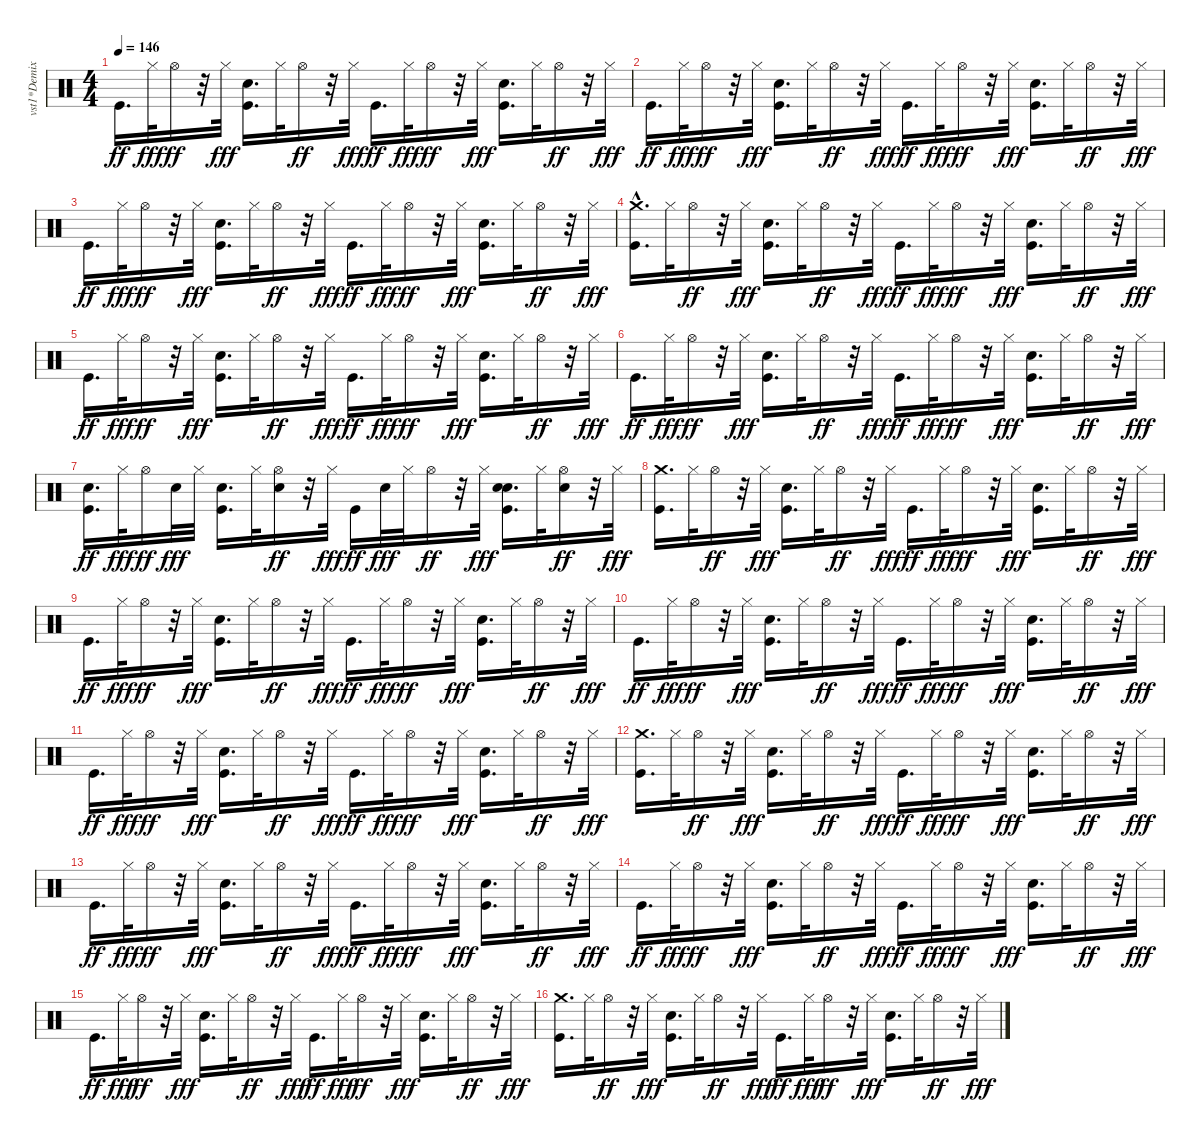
\track ("vst1*Demixed 10" "vst1*Demix") {instrument percussion}
\staff {score}
\articulation defaults
\ts (4 4)
\tempo 146
\clef neutral
\ks c "Kick (hit)".16{d dy ff} "Hi-Hat (closed)".32{dy fff} "Hi-Hat (open)".16{dy ff}
r.32 "Hi-Hat (closed)".32{dy fff} ("Kick (hit)" "Hand Clap (hit)").16{d} "Hi-Hat (closed)".32 "Hi-Hat (open)".16{dy ff} r.32 "Hi-Hat (closed)".32{dy fff} "Kick (hit)".16{d dy ff} "Hi-Hat (closed)".32{dy fff} "Hi-Hat (open)".16{dy ff} r.32 "Hi-Hat (closed)".32{dy fff} ("Kick (hit)" "Hand Clap (hit)").16{d} "Hi-Hat (closed)".32 "Hi-Hat (open)".16{dy ff} r.32 "Hi-Hat (closed)".32{dy fff} |
"Kick (hit)".16{d dy ff} "Hi-Hat (closed)".32{dy fff} "Hi-Hat (open)".16{dy ff} r.32 "Hi-Hat (closed)".32{dy fff} ("Kick (hit)" "Hand Clap (hit)").16{d} "Hi-Hat (closed)".32 "Hi-Hat (open)".16{dy ff} r.32 "Hi-Hat (closed)".32{dy fff} "Kick (hit)".16{d dy ff} "Hi-Hat (closed)".32{dy fff} "Hi-Hat (open)".16{dy ff} r.32 "Hi-Hat (closed)".32{dy fff} ("Kick (hit)" "Hand Clap (hit)").16{d} "Hi-Hat (closed)".32 "Hi-Hat (open)".16{dy ff} r.32 "Hi-Hat (closed)".32{dy fff} |
"Kick (hit)".16{d dy ff} "Hi-Hat (closed)".32{dy fff} "Hi-Hat (open)".16{dy ff} r.32 "Hi-Hat (closed)".32{dy fff} ("Kick (hit)" "Hand Clap (hit)").16{d} "Hi-Hat (closed)".32 "Hi-Hat (open)".16{dy ff} r.32 "Hi-Hat (closed)".32{dy fff} "Kick (hit)".16{d dy ff} "Hi-Hat (closed)".32{dy fff} "Hi-Hat (open)".16{dy ff} r.32 "Hi-Hat (closed)".32{dy fff} ("Kick (hit)" "Hand Clap (hit)").16{d} "Hi-Hat (closed)".32 "Hi-Hat (open)".16{dy ff} r.32 "Hi-Hat (closed)".32{dy fff} |
("Kick (hit)" "Crash medium (hit)"{hac}).16{d} "Hi-Hat (closed)".32 "Hi-Hat (open)".16{dy ff} r.32 "Hi-Hat (closed)".32{dy fff} ("Kick (hit)" "Hand Clap (hit)").16{d} "Hi-Hat (closed)".32 "Hi-Hat (open)".16{dy ff} r.32 "Hi-Hat (closed)".32{dy fff} "Kick (hit)".16{d dy ff} "Hi-Hat (closed)".32{dy fff} "Hi-Hat (open)".16{dy ff} r.32 "Hi-Hat (closed)".32{dy fff} ("Kick (hit)" "Hand Clap (hit)").16{d} "Hi-Hat (closed)".32 "Hi-Hat (open)".16{dy ff} r.32 "Hi-Hat (closed)".32{dy fff} |
"Kick (hit)".16{d dy ff} "Hi-Hat (closed)".32{dy fff} "Hi-Hat (open)".16{dy ff} r.32 "Hi-Hat (closed)".32{dy fff} ("Kick (hit)" "Hand Clap (hit)").16{d} "Hi-Hat (closed)".32 "Hi-Hat (open)".16{dy ff} r.32 "Hi-Hat (closed)".32{dy fff} "Kick (hit)".16{d dy ff} "Hi-Hat (closed)".32{dy fff} "Hi-Hat (open)".16{dy ff} r.32 "Hi-Hat (closed)".32{dy fff} ("Kick (hit)" "Hand Clap (hit)").16{d} "Hi-Hat (closed)".32 "Hi-Hat (open)".16{dy ff} r.32 "Hi-Hat (closed)".32{dy fff} |
"Kick (hit)".16{d dy ff} "Hi-Hat (closed)".32{dy fff} "Hi-Hat (open)".16{dy ff} r.32 "Hi-Hat (closed)".32{dy fff} ("Kick (hit)" "Hand Clap (hit)").16{d} "Hi-Hat (closed)".32 "Hi-Hat (open)".16{dy ff} r.32 "Hi-Hat (closed)".32{dy fff} "Kick (hit)".16{d dy ff} "Hi-Hat (closed)".32{dy fff} "Hi-Hat (open)".16{dy ff} r.32 "Hi-Hat (closed)".32{dy fff} ("Kick (hit)" "Hand Clap (hit)").16{d} "Hi-Hat (closed)".32 "Hi-Hat (open)".16{dy ff} r.32 "Hi-Hat (closed)".32{dy fff} |
("Snare (hit)" "Kick (hit)").16{d dy ff} "Hi-Hat (closed)".32{dy fff} "Hi-Hat (open)".16{dy ff} "Snare (hit)".32{dy fff} "Hi-Hat (closed)".32 ("Kick (hit)" "Hand Clap (hit)").16{d} "Hi-Hat (closed)".32 ("Snare (hit)" "Hi-Hat (open)").16{dy ff} r.32 "Hi-Hat (closed)".32{dy fff} "Kick (hit)".16{dy ff} "Snare (hit)".32{dy fff} "Hi-Hat (closed)".32 "Hi-Hat (open)".16{dy ff} r.32 "Hi-Hat (closed)".32{dy fff} ("Snare (hit)" "Kick (hit)" "Hand Clap (hit)").16{d} "Hi-Hat (closed)".32 ("Snare (hit)" "Hi-Hat (open)").16{dy ff} r.32 "Hi-Hat (closed)".32{dy fff} |
("Kick (hit)" "Crash medium (hit)").16{d} "Hi-Hat (closed)".32 "Hi-Hat (open)".16{dy ff} r.32 "Hi-Hat (closed)".32{dy fff} ("Kick (hit)" "Hand Clap (hit)").16{d} "Hi-Hat (closed)".32 "Hi-Hat (open)".16{dy ff} r.32 "Hi-Hat (closed)".32{dy fff} "Kick (hit)".16{d dy ff} "Hi-Hat (closed)".32{dy fff} "Hi-Hat (open)".16{dy ff} r.32 "Hi-Hat (closed)".32{dy fff} ("Kick (hit)" "Hand Clap (hit)").16{d} "Hi-Hat (closed)".32 "Hi-Hat (open)".16{dy ff} r.32 "Hi-Hat (closed)".32{dy fff} |
"Kick (hit)".16{d dy ff} "Hi-Hat (closed)".32{dy fff} "Hi-Hat (open)".16{dy ff} r.32 "Hi-Hat (closed)".32{dy fff} ("Kick (hit)" "Hand Clap (hit)").16{d} "Hi-Hat (closed)".32 "Hi-Hat (open)".16{dy ff} r.32 "Hi-Hat (closed)".32{dy fff} "Kick (hit)".16{d dy ff} "Hi-Hat (closed)".32{dy fff} "Hi-Hat (open)".16{dy ff} r.32 "Hi-Hat (closed)".32{dy fff} ("Kick (hit)" "Hand Clap (hit)").16{d} "Hi-Hat (closed)".32 "Hi-Hat (open)".16{dy ff} r.32 "Hi-Hat (closed)".32{dy fff} |
"Kick (hit)".16{d dy ff} "Hi-Hat (closed)".32{dy fff} "Hi-Hat (open)".16{dy ff} r.32 "Hi-Hat (closed)".32{dy fff} ("Kick (hit)" "Hand Clap (hit)").16{d} "Hi-Hat (closed)".32 "Hi-Hat (open)".16{dy ff} r.32 "Hi-Hat (closed)".32{dy fff} "Kick (hit)".16{d dy ff} "Hi-Hat (closed)".32{dy fff} "Hi-Hat (open)".16{dy ff} r.32 "Hi-Hat (closed)".32{dy fff} ("Kick (hit)" "Hand Clap (hit)").16{d} "Hi-Hat (closed)".32 "Hi-Hat (open)".16{dy ff} r.32 "Hi-Hat (closed)".32{dy fff} |
"Kick (hit)".16{d dy ff} "Hi-Hat (closed)".32{dy fff} "Hi-Hat (open)".16{dy ff} r.32 "Hi-Hat (closed)".32{dy fff} ("Kick (hit)" "Hand Clap (hit)").16{d} "Hi-Hat (closed)".32 "Hi-Hat (open)".16{dy ff} r.32 "Hi-Hat (closed)".32{dy fff} "Kick (hit)".16{d dy ff} "Hi-Hat (closed)".32{dy fff} "Hi-Hat (open)".16{dy ff} r.32 "Hi-Hat (closed)".32{dy fff} ("Kick (hit)" "Hand Clap (hit)").16{d} "Hi-Hat (closed)".32 "Hi-Hat (open)".16{dy ff} r.32 "Hi-Hat (closed)".32{dy fff} |
("Kick (hit)" "Crash medium (hit)").16{d} "Hi-Hat (closed)".32 "Hi-Hat (open)".16{dy ff} r.32 "Hi-Hat (closed)".32{dy fff} ("Kick (hit)" "Hand Clap (hit)").16{d} "Hi-Hat (closed)".32 "Hi-Hat (open)".16{dy ff} r.32 "Hi-Hat (closed)".32{dy fff} "Kick (hit)".16{d dy ff} "Hi-Hat (closed)".32{dy fff} "Hi-Hat (open)".16{dy ff} r.32 "Hi-Hat (closed)".32{dy fff} ("Kick (hit)" "Hand Clap (hit)").16{d} "Hi-Hat (closed)".32 "Hi-Hat (open)".16{dy ff} r.32 "Hi-Hat (closed)".32{dy fff} |
"Kick (hit)".16{d dy ff} "Hi-Hat (closed)".32{dy fff} "Hi-Hat (open)".16{dy ff} r.32 "Hi-Hat (closed)".32{dy fff} ("Kick (hit)" "Hand Clap (hit)").16{d} "Hi-Hat (closed)".32 "Hi-Hat (open)".16{dy ff} r.32 "Hi-Hat (closed)".32{dy fff} "Kick (hit)".16{d dy ff} "Hi-Hat (closed)".32{dy fff} "Hi-Hat (open)".16{dy ff} r.32 "Hi-Hat (closed)".32{dy fff} ("Kick (hit)" "Hand Clap (hit)").16{d} "Hi-Hat (closed)".32 "Hi-Hat (open)".16{dy ff} r.32 "Hi-Hat (closed)".32{dy fff} |
"Kick (hit)".16{d dy ff} "Hi-Hat (closed)".32{dy fff} "Hi-Hat (open)".16{dy ff} r.32 "Hi-Hat (closed)".32{dy fff} ("Kick (hit)" "Hand Clap (hit)").16{d} "Hi-Hat (closed)".32 "Hi-Hat (open)".16{dy ff} r.32 "Hi-Hat (closed)".32{dy fff} "Kick (hit)".16{d dy ff} "Hi-Hat (closed)".32{dy fff} "Hi-Hat (open)".16{dy ff} r.32 "Hi-Hat (closed)".32{dy fff} ("Kick (hit)" "Hand Clap (hit)").16{d} "Hi-Hat (closed)".32 "Hi-Hat (open)".16{dy ff} r.32 "Hi-Hat (closed)".32{dy fff} |
"Kick (hit)".16{d dy ff} "Hi-Hat (closed)".32{dy fff} "Hi-Hat (open)".16{dy ff} r.32 "Hi-Hat (closed)".32{dy fff} ("Kick (hit)" "Hand Clap (hit)").16{d} "Hi-Hat (closed)".32 "Hi-Hat (open)".16{dy ff} r.32 "Hi-Hat (closed)".32{dy fff} "Kick (hit)".16{d dy ff} "Hi-Hat (closed)".32{dy fff} "Hi-Hat (open)".16{dy ff} r.32 "Hi-Hat (closed)".32{dy fff} ("Kick (hit)" "Hand Clap (hit)").16{d} "Hi-Hat (closed)".32 "Hi-Hat (open)".16{dy ff} r.32 "Hi-Hat (closed)".32{dy fff} |
("Kick (hit)" "Crash medium (hit)").16{d} "Hi-Hat (closed)".32 "Hi-Hat (open)".16{dy ff} r.32 "Hi-Hat (closed)".32{dy fff} ("Kick (hit)" "Hand Clap (hit)").16{d} "Hi-Hat (closed)".32 "Hi-Hat (open)".16{dy ff} r.32 "Hi-Hat (closed)".32{dy fff} "Kick (hit)".16{d dy ff} "Hi-Hat (closed)".32{dy fff} "Hi-Hat (open)".16{dy ff} r.32 "Hi-Hat (closed)".32{dy fff} ("Kick (hit)" "Hand Clap (hit)").16{d} "Hi-Hat (closed)".32 "Hi-Hat (open)".16{dy ff} r.32 "Hi-Hat (closed)".32{dy fff}
